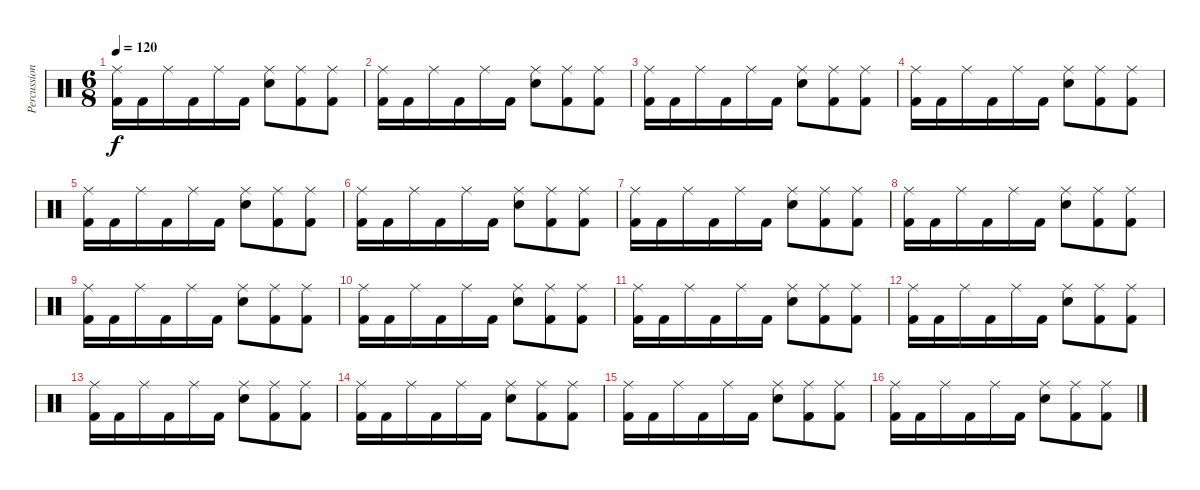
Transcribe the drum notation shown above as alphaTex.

\track ("Percussion" "Percussion") {instrument percussion}
\staff {score}
\articulation defaults
\ts (6 8)
\tempo 120
\clef neutral
\ks c
("Ride (middle)" "Kick (hit) 2").16{dy f} "Kick (hit) 2".16 "Ride (middle)".16 "Kick (hit) 2".16 "Ride (middle)".16 "Kick (hit) 2".16 ("Ride (middle)" "Electric Snare (hit)").8 ("Ride (middle)" "Kick (hit) 2").8 ("Ride (middle)" "Kick (hit) 2").8 |
("Ride (middle)" "Kick (hit) 2").16 "Kick (hit) 2".16 "Ride (middle)".16 "Kick (hit) 2".16 "Ride (middle)".16 "Kick (hit) 2".16 ("Ride (middle)" "Electric Snare (hit)").8 ("Ride (middle)" "Kick (hit) 2").8 ("Ride (middle)" "Kick (hit) 2").8 |
("Ride (middle)" "Kick (hit) 2").16 "Kick (hit) 2".16 "Ride (middle)".16 "Kick (hit) 2".16 "Ride (middle)".16 "Kick (hit) 2".16 ("Ride (middle)" "Electric Snare (hit)").8 ("Ride (middle)" "Kick (hit) 2").8 ("Ride (middle)" "Kick (hit) 2").8 |
("Ride (middle)" "Kick (hit) 2").16 "Kick (hit) 2".16 "Ride (middle)".16 "Kick (hit) 2".16 "Ride (middle)".16 "Kick (hit) 2".16 ("Ride (middle)" "Electric Snare (hit)").8 ("Ride (middle)" "Kick (hit) 2").8 ("Ride (middle)" "Kick (hit) 2").8 |
("Ride (middle)" "Kick (hit) 2").16 "Kick (hit) 2".16 "Ride (middle)".16 "Kick (hit) 2".16 "Ride (middle)".16 "Kick (hit) 2".16 ("Ride (middle)" "Electric Snare (hit)").8 ("Ride (middle)" "Kick (hit) 2").8 ("Ride (middle)" "Kick (hit) 2").8 |
("Ride (middle)" "Kick (hit) 2").16 "Kick (hit) 2".16 "Ride (middle)".16 "Kick (hit) 2".16 "Ride (middle)".16 "Kick (hit) 2".16 ("Ride (middle)" "Electric Snare (hit)").8 ("Ride (middle)" "Kick (hit) 2").8 ("Ride (middle)" "Kick (hit) 2").8 |
("Ride (middle)" "Kick (hit) 2").16 "Kick (hit) 2".16 "Ride (middle)".16 "Kick (hit) 2".16 "Ride (middle)".16 "Kick (hit) 2".16 ("Ride (middle)" "Electric Snare (hit)").8 ("Ride (middle)" "Kick (hit) 2").8 ("Ride (middle)" "Kick (hit) 2").8 |
("Ride (middle)" "Kick (hit) 2").16 "Kick (hit) 2".16 "Ride (middle)".16 "Kick (hit) 2".16 "Ride (middle)".16 "Kick (hit) 2".16 ("Ride (middle)" "Electric Snare (hit)").8 ("Ride (middle)" "Kick (hit) 2").8 ("Ride (middle)" "Kick (hit) 2").8 |
("Ride (middle)" "Kick (hit) 2").16 "Kick (hit) 2".16 "Ride (middle)".16 "Kick (hit) 2".16 "Ride (middle)".16 "Kick (hit) 2".16 ("Ride (middle)" "Electric Snare (hit)").8 ("Ride (middle)" "Kick (hit) 2").8 ("Ride (middle)" "Kick (hit) 2").8 |
("Ride (middle)" "Kick (hit) 2").16 "Kick (hit) 2".16 "Ride (middle)".16 "Kick (hit) 2".16 "Ride (middle)".16 "Kick (hit) 2".16 ("Ride (middle)" "Electric Snare (hit)").8 ("Ride (middle)" "Kick (hit) 2").8 ("Ride (middle)" "Kick (hit) 2").8 |
("Ride (middle)" "Kick (hit) 2").16 "Kick (hit) 2".16 "Ride (middle)".16 "Kick (hit) 2".16 "Ride (middle)".16 "Kick (hit) 2".16 ("Ride (middle)" "Electric Snare (hit)").8 ("Ride (middle)" "Kick (hit) 2").8 ("Ride (middle)" "Kick (hit) 2").8 |
("Ride (middle)" "Kick (hit) 2").16 "Kick (hit) 2".16 "Ride (middle)".16 "Kick (hit) 2".16 "Ride (middle)".16 "Kick (hit) 2".16 ("Ride (middle)" "Electric Snare (hit)").8 ("Ride (middle)" "Kick (hit) 2").8 ("Ride (middle)" "Kick (hit) 2").8 |
("Ride (middle)" "Kick (hit) 2").16 "Kick (hit) 2".16 "Ride (middle)".16 "Kick (hit) 2".16 "Ride (middle)".16 "Kick (hit) 2".16 ("Ride (middle)" "Electric Snare (hit)").8 ("Ride (middle)" "Kick (hit) 2").8 ("Ride (middle)" "Kick (hit) 2").8 |
("Ride (middle)" "Kick (hit) 2").16 "Kick (hit) 2".16 "Ride (middle)".16 "Kick (hit) 2".16 "Ride (middle)".16 "Kick (hit) 2".16 ("Ride (middle)" "Electric Snare (hit)").8 ("Ride (middle)" "Kick (hit) 2").8 ("Ride (middle)" "Kick (hit) 2").8 |
("Ride (middle)" "Kick (hit) 2").16 "Kick (hit) 2".16 "Ride (middle)".16 "Kick (hit) 2".16 "Ride (middle)".16 "Kick (hit) 2".16 ("Ride (middle)" "Electric Snare (hit)").8 ("Ride (middle)" "Kick (hit) 2").8 ("Ride (middle)" "Kick (hit) 2").8 |
("Ride (middle)" "Kick (hit) 2").16 "Kick (hit) 2".16 "Ride (middle)".16 "Kick (hit) 2".16 "Ride (middle)".16 "Kick (hit) 2".16 ("Ride (middle)" "Electric Snare (hit)").8 ("Ride (middle)" "Kick (hit) 2").8 ("Ride (middle)" "Kick (hit) 2").8
